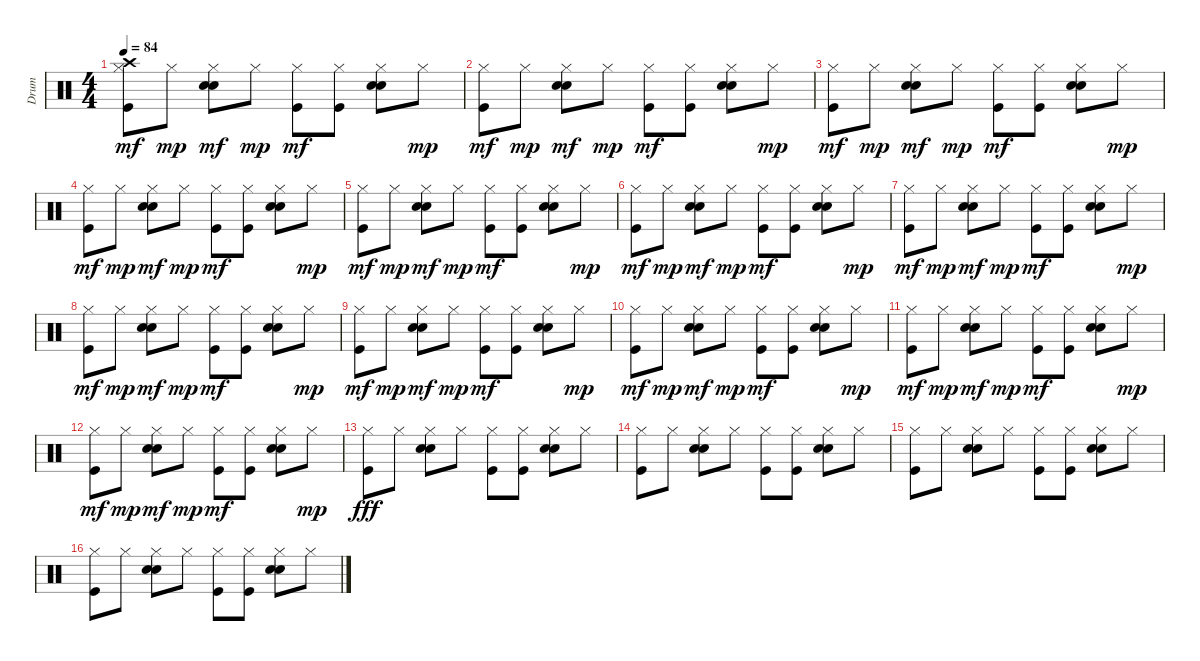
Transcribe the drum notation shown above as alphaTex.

\track ("Drum" "Drum") {instrument percussion}
\staff {score}
\articulation defaults
\ts (4 4)
\tempo 84
\clef neutral
\ks c
("Crash high (hit)" "Hi-Hat (closed)" "Kick (hit)").8{dy mf} "Hi-Hat (closed)".8{dy mp} ("Hi-Hat (closed)" "Electric Snare (hit)" "Hand Clap (hit)").8{dy mf} "Hi-Hat (closed)".8{dy mp} ("Hi-Hat (closed)" "Kick (hit)").8{dy mf} ("Hi-Hat (closed)" "Kick (hit)").8 ("Hi-Hat (closed)" "Electric Snare (hit)" "Hand Clap (hit)").8 "Hi-Hat (closed)".8{dy mp} |
("Hi-Hat (closed)" "Kick (hit)").8{dy mf} "Hi-Hat (closed)".8{dy mp} ("Hi-Hat (closed)" "Electric Snare (hit)" "Hand Clap (hit)").8{dy mf} "Hi-Hat (closed)".8{dy mp} ("Hi-Hat (closed)" "Kick (hit)").8{dy mf} ("Hi-Hat (closed)" "Kick (hit)").8 ("Hi-Hat (closed)" "Electric Snare (hit)" "Hand Clap (hit)").8 "Hi-Hat (closed)".8{dy mp} |
("Hi-Hat (closed)" "Kick (hit)").8{dy mf} "Hi-Hat (closed)".8{dy mp} ("Hi-Hat (closed)" "Electric Snare (hit)" "Hand Clap (hit)").8{dy mf} "Hi-Hat (closed)".8{dy mp} ("Hi-Hat (closed)" "Kick (hit)").8{dy mf} ("Hi-Hat (closed)" "Kick (hit)").8 ("Hi-Hat (closed)" "Electric Snare (hit)" "Hand Clap (hit)").8 "Hi-Hat (closed)".8{dy mp} |
("Hi-Hat (closed)" "Kick (hit)").8{dy mf} "Hi-Hat (closed)".8{dy mp} ("Hi-Hat (closed)" "Electric Snare (hit)" "Hand Clap (hit)").8{dy mf} "Hi-Hat (closed)".8{dy mp} ("Hi-Hat (closed)" "Kick (hit)").8{dy mf} ("Hi-Hat (closed)" "Kick (hit)").8 ("Hi-Hat (closed)" "Electric Snare (hit)" "Hand Clap (hit)").8 "Hi-Hat (closed)".8{dy mp} |
("Hi-Hat (closed)" "Kick (hit)").8{dy mf} "Hi-Hat (closed)".8{dy mp} ("Hi-Hat (closed)" "Electric Snare (hit)" "Hand Clap (hit)").8{dy mf} "Hi-Hat (closed)".8{dy mp} ("Hi-Hat (closed)" "Kick (hit)").8{dy mf} ("Hi-Hat (closed)" "Kick (hit)").8 ("Hi-Hat (closed)" "Electric Snare (hit)" "Hand Clap (hit)").8 "Hi-Hat (closed)".8{dy mp} |
("Hi-Hat (closed)" "Kick (hit)").8{dy mf} "Hi-Hat (closed)".8{dy mp} ("Hi-Hat (closed)" "Electric Snare (hit)" "Hand Clap (hit)").8{dy mf} "Hi-Hat (closed)".8{dy mp} ("Hi-Hat (closed)" "Kick (hit)").8{dy mf} ("Hi-Hat (closed)" "Kick (hit)").8 ("Hi-Hat (closed)" "Electric Snare (hit)" "Hand Clap (hit)").8 "Hi-Hat (closed)".8{dy mp} |
("Hi-Hat (closed)" "Kick (hit)").8{dy mf} "Hi-Hat (closed)".8{dy mp} ("Hi-Hat (closed)" "Electric Snare (hit)" "Hand Clap (hit)").8{dy mf} "Hi-Hat (closed)".8{dy mp} ("Hi-Hat (closed)" "Kick (hit)").8{dy mf} ("Hi-Hat (closed)" "Kick (hit)").8 ("Hi-Hat (closed)" "Electric Snare (hit)" "Hand Clap (hit)").8 "Hi-Hat (closed)".8{dy mp} |
("Hi-Hat (closed)" "Kick (hit)").8{dy mf} "Hi-Hat (closed)".8{dy mp} ("Hi-Hat (closed)" "Electric Snare (hit)" "Hand Clap (hit)").8{dy mf} "Hi-Hat (closed)".8{dy mp} ("Hi-Hat (closed)" "Kick (hit)").8{dy mf} ("Hi-Hat (closed)" "Kick (hit)").8 ("Hi-Hat (closed)" "Electric Snare (hit)" "Hand Clap (hit)").8 "Hi-Hat (closed)".8{dy mp} |
("Hi-Hat (closed)" "Kick (hit)").8{dy mf} "Hi-Hat (closed)".8{dy mp} ("Hi-Hat (closed)" "Electric Snare (hit)" "Hand Clap (hit)").8{dy mf} "Hi-Hat (closed)".8{dy mp} ("Hi-Hat (closed)" "Kick (hit)").8{dy mf} ("Hi-Hat (closed)" "Kick (hit)").8 ("Hi-Hat (closed)" "Electric Snare (hit)" "Hand Clap (hit)").8 "Hi-Hat (closed)".8{dy mp} |
("Hi-Hat (closed)" "Kick (hit)").8{dy mf} "Hi-Hat (closed)".8{dy mp} ("Hi-Hat (closed)" "Electric Snare (hit)" "Hand Clap (hit)").8{dy mf} "Hi-Hat (closed)".8{dy mp} ("Hi-Hat (closed)" "Kick (hit)").8{dy mf} ("Hi-Hat (closed)" "Kick (hit)").8 ("Hi-Hat (closed)" "Electric Snare (hit)" "Hand Clap (hit)").8 "Hi-Hat (closed)".8{dy mp} |
("Hi-Hat (closed)" "Kick (hit)").8{dy mf} "Hi-Hat (closed)".8{dy mp} ("Hi-Hat (closed)" "Electric Snare (hit)" "Hand Clap (hit)").8{dy mf} "Hi-Hat (closed)".8{dy mp} ("Hi-Hat (closed)" "Kick (hit)").8{dy mf} ("Hi-Hat (closed)" "Kick (hit)").8 ("Hi-Hat (closed)" "Electric Snare (hit)" "Hand Clap (hit)").8 "Hi-Hat (closed)".8{dy mp} |
("Hi-Hat (closed)" "Kick (hit)").8{dy mf} "Hi-Hat (closed)".8{dy mp} ("Hi-Hat (closed)" "Electric Snare (hit)" "Hand Clap (hit)").8{dy mf} "Hi-Hat (closed)".8{dy mp} ("Hi-Hat (closed)" "Kick (hit)").8{dy mf} ("Hi-Hat (closed)" "Kick (hit)").8 ("Hi-Hat (closed)" "Electric Snare (hit)" "Hand Clap (hit)").8 "Hi-Hat (closed)".8{dy mp} |
("Hi-Hat (closed)" "Kick (hit)").8{dy fff} "Hi-Hat (closed)".8 ("Hi-Hat (closed)" "Electric Snare (hit)" "Hand Clap (hit)").8 "Hi-Hat (closed)".8 ("Hi-Hat (closed)" "Kick (hit)").8 ("Hi-Hat (closed)" "Kick (hit)").8 ("Hi-Hat (closed)" "Electric Snare (hit)" "Hand Clap (hit)").8 "Hi-Hat (closed)".8 |
("Hi-Hat (closed)" "Kick (hit)").8 "Hi-Hat (closed)".8 ("Hi-Hat (closed)" "Electric Snare (hit)" "Hand Clap (hit)").8 "Hi-Hat (closed)".8 ("Hi-Hat (closed)" "Kick (hit)").8 ("Hi-Hat (closed)" "Kick (hit)").8 ("Hi-Hat (closed)" "Electric Snare (hit)" "Hand Clap (hit)").8 "Hi-Hat (closed)".8 |
("Hi-Hat (closed)" "Kick (hit)").8 "Hi-Hat (closed)".8 ("Hi-Hat (closed)" "Electric Snare (hit)" "Hand Clap (hit)").8 "Hi-Hat (closed)".8 ("Hi-Hat (closed)" "Kick (hit)").8 ("Hi-Hat (closed)" "Kick (hit)").8 ("Hi-Hat (closed)" "Electric Snare (hit)" "Hand Clap (hit)").8 "Hi-Hat (closed)".8 |
("Hi-Hat (closed)" "Kick (hit)").8 "Hi-Hat (closed)".8 ("Hi-Hat (closed)" "Electric Snare (hit)" "Hand Clap (hit)").8 "Hi-Hat (closed)".8 ("Hi-Hat (closed)" "Kick (hit)").8 ("Hi-Hat (closed)" "Kick (hit)").8 ("Hi-Hat (closed)" "Electric Snare (hit)" "Hand Clap (hit)").8 "Hi-Hat (closed)".8
